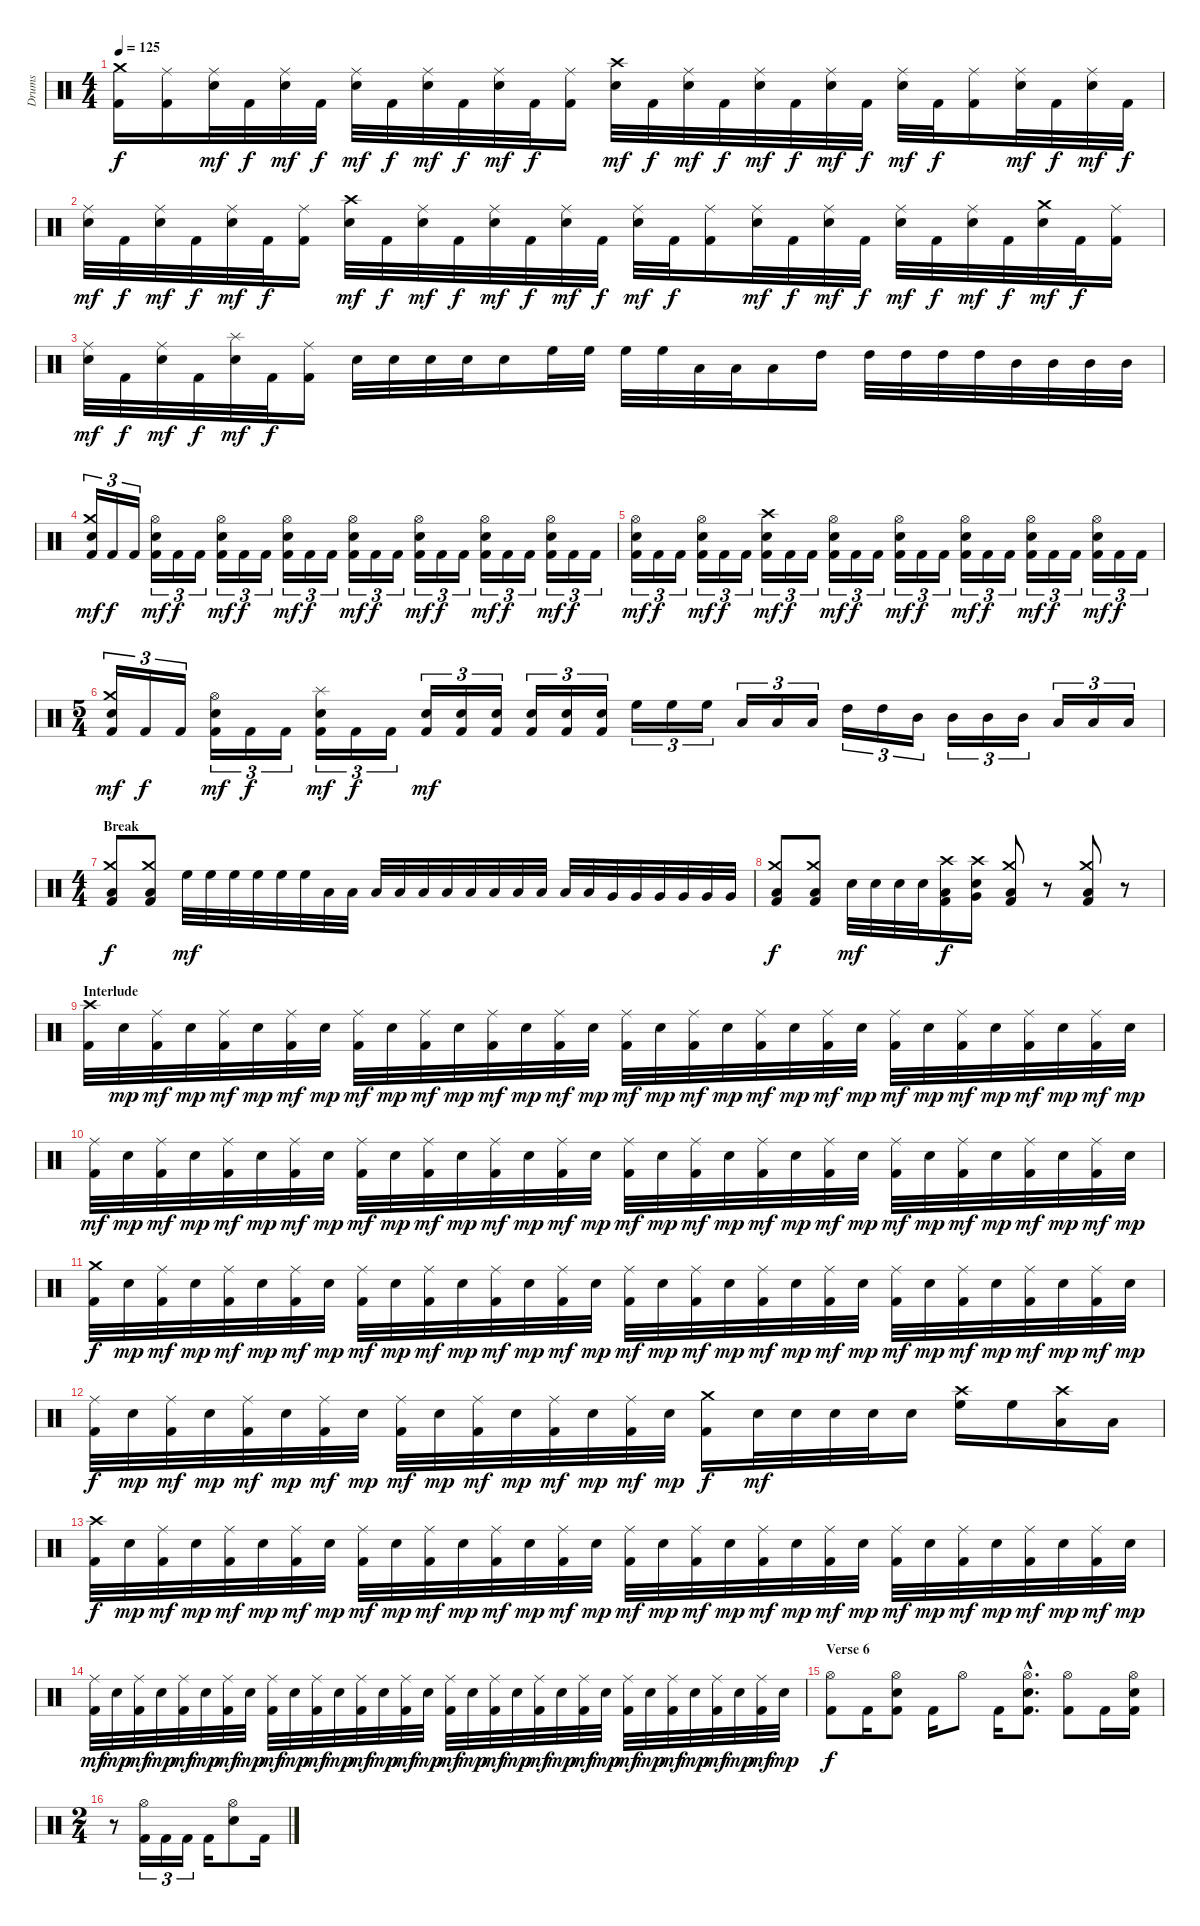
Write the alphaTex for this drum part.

\track ("Drums" "Drums") {instrument percussion}
\staff {score}
\articulation defaults
\ts (4 4)
\tempo 125
\clef neutral
\ks c
("Kick (hit) 2" "Crash medium (hit)").16{dy f} ("Kick (hit) 2" "Ride (middle)").16 ("Electric Snare (hit)" "Ride (middle)").32{dy mf} "Kick (hit) 2".32{dy f} ("Electric Snare (hit)" "Ride (middle)").32{dy mf} "Kick (hit) 2".32{dy f} ("Electric Snare (hit)" "Ride (middle)").32{dy mf} "Kick (hit) 2".32{dy f} ("Electric Snare (hit)" "Ride (middle)").32{dy mf} "Kick (hit) 2".32{dy f} ("Electric Snare (hit)" "Ride (middle)").32{dy mf} "Kick (hit) 2".32{dy f} ("Kick (hit) 2" "Ride (middle)").16 ("Electric Snare (hit)" "Crash high (hit)").32{dy mf} "Kick (hit) 2".32{dy f} ("Electric Snare (hit)" "Ride (middle)").32{dy mf} "Kick (hit) 2".32{dy f} ("Electric Snare (hit)" "Ride (middle)").32{dy mf} "Kick (hit) 2".32{dy f} ("Electric Snare (hit)" "Ride (middle)").32{dy mf} "Kick (hit) 2".32{dy f} ("Electric Snare (hit)" "Ride (middle)").32{dy mf} "Kick (hit) 2".32{dy f} ("Kick (hit) 2" "Ride (middle)").16 ("Electric Snare (hit)" "Ride (middle)").32{dy mf} "Kick (hit) 2".32{dy f} ("Electric Snare (hit)" "Ride (middle)").32{dy mf} "Kick (hit) 2".32{dy f} |
("Electric Snare (hit)" "Ride (middle)").32{dy mf} "Kick (hit) 2".32{dy f} ("Electric Snare (hit)" "Ride (middle)").32{dy mf} "Kick (hit) 2".32{dy f} ("Electric Snare (hit)" "Ride (middle)").32{dy mf} "Kick (hit) 2".32{dy f} ("Kick (hit) 2" "Ride (middle)").16 ("Electric Snare (hit)" "Crash high (hit)").32{dy mf} "Kick (hit) 2".32{dy f} ("Electric Snare (hit)" "Ride (middle)").32{dy mf} "Kick (hit) 2".32{dy f} ("Electric Snare (hit)" "Ride (middle)").32{dy mf} "Kick (hit) 2".32{dy f} ("Electric Snare (hit)" "Ride (middle)").32{dy mf} "Kick (hit) 2".32{dy f} ("Electric Snare (hit)" "Ride (middle)").32{dy mf} "Kick (hit) 2".32{dy f} ("Kick (hit) 2" "Ride (middle)").16 ("Electric Snare (hit)" "Ride (middle)").32{dy mf} "Kick (hit) 2".32{dy f} ("Electric Snare (hit)" "Ride (middle)").32{dy mf} "Kick (hit) 2".32{dy f} ("Electric Snare (hit)" "Ride (middle)").32{dy mf} "Kick (hit) 2".32{dy f} ("Electric Snare (hit)" "Ride (middle)").32{dy mf} "Kick (hit) 2".32{dy f} ("Electric Snare (hit)" "Crash medium (hit)").32{dy mf} "Kick (hit) 2".32{dy f} ("Kick (hit) 2" "Ride (middle)").16 |
("Electric Snare (hit)" "Ride (middle)").32{dy mf} "Kick (hit) 2".32{dy f} ("Electric Snare (hit)" "Ride (middle)").32{dy mf} "Kick (hit) 2".32{dy f} ("Electric Snare (hit)" "Splash (hit)").32{dy mf} "Kick (hit) 2".32{dy f} ("Kick (hit) 2" "Ride (middle)").16 "Electric Snare (hit)".32 "Electric Snare (hit)".32 "Electric Snare (hit)".32 "Electric Snare (hit)".32 "Electric Snare (hit)".16 "High Floor Tom (hit)".32 "High Floor Tom (hit)".32 "High Floor Tom (hit)".32 "High Floor Tom (hit)".32 "Low Tom (hit)".32 "Low Tom (hit)".32 "Low Tom (hit)".16 "High Tom (hit)".16 "High Tom (hit)".32 "High Tom (hit)".32 "High Tom (hit)".32 "High Tom (hit)".32 "Mid Tom (hit)".32 "Mid Tom (hit)".32 "Mid Tom (hit)".32 "Mid Tom (hit)".32 |
("Kick (hit) 2" "Electric Snare (hit)" "Crash medium (hit)").16{tu (3 2) dy mf} "Kick (hit) 2".16{tu (3 2) dy f} "Kick (hit) 2".16{tu (3 2)} ("Kick (hit) 2" "Electric Snare (hit)" "Hi-Hat (open)").16{tu (3 2) dy mf} "Kick (hit) 2".16{tu (3 2) dy f} "Kick (hit) 2".16{tu (3 2)} ("Kick (hit) 2" "Electric Snare (hit)" "Hi-Hat (open)").16{tu (3 2) dy mf} "Kick (hit) 2".16{tu (3 2) dy f} "Kick (hit) 2".16{tu (3 2)} ("Kick (hit) 2" "Electric Snare (hit)" "Hi-Hat (open)").16{tu (3 2) dy mf} "Kick (hit) 2".16{tu (3 2) dy f} "Kick (hit) 2".16{tu (3 2)} ("Kick (hit) 2" "Electric Snare (hit)" "Hi-Hat (open)").16{tu (3 2) dy mf} "Kick (hit) 2".16{tu (3 2) dy f} "Kick (hit) 2".16{tu (3 2)} ("Kick (hit) 2" "Electric Snare (hit)" "Hi-Hat (open)").16{tu (3 2) dy mf} "Kick (hit) 2".16{tu (3 2) dy f} "Kick (hit) 2".16{tu (3 2)} ("Kick (hit) 2" "Electric Snare (hit)" "Hi-Hat (open)").16{tu (3 2) dy mf} "Kick (hit) 2".16{tu (3 2) dy f} "Kick (hit) 2".16{tu (3 2)} ("Kick (hit) 2" "Electric Snare (hit)" "Hi-Hat (open)").16{tu (3 2) dy mf} "Kick (hit) 2".16{tu (3 2) dy f} "Kick (hit) 2".16{tu (3 2)} |
("Kick (hit) 2" "Electric Snare (hit)" "Hi-Hat (open)").16{tu (3 2) dy mf} "Kick (hit) 2".16{tu (3 2) dy f} "Kick (hit) 2".16{tu (3 2)} ("Kick (hit) 2" "Electric Snare (hit)" "Hi-Hat (open)").16{tu (3 2) dy mf} "Kick (hit) 2".16{tu (3 2) dy f} "Kick (hit) 2".16{tu (3 2)} ("Kick (hit) 2" "Electric Snare (hit)" "Crash high (hit)").16{tu (3 2) dy mf} "Kick (hit) 2".16{tu (3 2) dy f} "Kick (hit) 2".16{tu (3 2)} ("Kick (hit) 2" "Electric Snare (hit)" "Hi-Hat (open)").16{tu (3 2) dy mf} "Kick (hit) 2".16{tu (3 2) dy f} "Kick (hit) 2".16{tu (3 2)} ("Kick (hit) 2" "Electric Snare (hit)" "Hi-Hat (open)").16{tu (3 2) dy mf} "Kick (hit) 2".16{tu (3 2) dy f} "Kick (hit) 2".16{tu (3 2)} ("Kick (hit) 2" "Electric Snare (hit)" "Hi-Hat (open)").16{tu (3 2) dy mf} "Kick (hit) 2".16{tu (3 2) dy f} "Kick (hit) 2".16{tu (3 2)} ("Kick (hit) 2" "Electric Snare (hit)" "Hi-Hat (open)").16{tu (3 2) dy mf} "Kick (hit) 2".16{tu (3 2) dy f} "Kick (hit) 2".16{tu (3 2)} ("Kick (hit) 2" "Electric Snare (hit)" "Hi-Hat (open)").16{tu (3 2) dy mf} "Kick (hit) 2".16{tu (3 2) dy f} "Kick (hit) 2".16{tu (3 2)} |
\ts (5 4)
("Kick (hit) 2" "Electric Snare (hit)" "Crash medium (hit)").16{tu (3 2) dy mf} "Kick (hit) 2".16{tu (3 2) dy f} "Kick (hit) 2".16{tu (3 2)} ("Kick (hit) 2" "Electric Snare (hit)" "Hi-Hat (open)").16{tu (3 2) dy mf} "Kick (hit) 2".16{tu (3 2) dy f} "Kick (hit) 2".16{tu (3 2)} ("Kick (hit) 2" "Electric Snare (hit)" "Splash (hit)").16{tu (3 2) dy mf} "Kick (hit) 2".16{tu (3 2) dy f} "Kick (hit) 2".16{tu (3 2)} ("Kick (hit) 2" "Electric Snare (hit)").16{tu (3 2) dy mf} ("Kick (hit) 2" "Electric Snare (hit)").16{tu (3 2)} ("Kick (hit) 2" "Electric Snare (hit)").16{tu (3 2)} ("Kick (hit) 2" "Electric Snare (hit)").16{tu (3 2)} ("Kick (hit) 2" "Electric Snare (hit)").16{tu (3 2)} ("Kick (hit) 2" "Electric Snare (hit)").16{tu (3 2)} "High Floor Tom (hit)".16{tu (3 2)} "High Floor Tom (hit)".16{tu (3 2)} "High Floor Tom (hit)".16{tu (3 2)} "Low Tom (hit)".16{tu (3 2)} "Low Tom (hit)".16{tu (3 2)} "Low Tom (hit)".16{tu (3 2)} "High Tom (hit)".16{tu (3 2)} "High Tom (hit)".16{tu (3 2)} "Mid Tom (hit)".16{tu (3 2)} "Mid Tom (hit)".16{tu (3 2)} "Mid Tom (hit)".16{tu (3 2)} "Mid Tom (hit)".16{tu (3 2)} "Low Floor Tom (hit)".16{tu (3 2)} "Low Floor Tom (hit)".16{tu (3 2)} "Low Floor Tom (hit)".16{tu (3 2)} |
\ts (4 4)
\section ("" "Break")
("Kick (hit) 2" "Low Floor Tom (hit)" "Crash medium (hit)").8{dy f} ("Kick (hit) 2" "Low Floor Tom (hit)" "Crash medium (hit)").8 "High Floor Tom (hit)".32{dy mf} "High Floor Tom (hit)".32 "High Floor Tom (hit)".32 "High Floor Tom (hit)".32 "High Floor Tom (hit)".32 "High Floor Tom (hit)".32 "Low Tom (hit)".32 "Low Tom (hit)".32 "Low Tom (hit)".32 "Low Tom (hit)".32 "Low Tom (hit)".32 "Low Tom (hit)".32 "Low Floor Tom (hit)".32 "Low Floor Tom (hit)".32 "Low Floor Tom (hit)".32 "Low Floor Tom (hit)".32 "Low Floor Tom (hit)".32 "Low Floor Tom (hit)".32 "Very Low Tom (hit)".32 "Very Low Tom (hit)".32 "Very Low Tom (hit)".32 "Very Low Tom (hit)".32 "Very Low Tom (hit)".32 "Very Low Tom (hit)".32 |
("Kick (hit) 2" "Low Floor Tom (hit)" "Crash medium (hit)").8{dy f} ("Kick (hit) 2" "Low Floor Tom (hit)" "Crash medium (hit)").8 "Electric Snare (hit)".32{dy mf} "Electric Snare (hit)".32 "Electric Snare (hit)".32 "Electric Snare (hit)".32 ("Kick (hit) 2" "Low Floor Tom (hit)" "Crash high (hit)").16{dy f} ("Snare (hit)" "Very Low Tom (hit)" "Crash high (hit)").16 ("Kick (hit) 2" "Low Floor Tom (hit)" "Crash medium (hit)").8 r.8 ("Kick (hit) 2" "Low Floor Tom (hit)" "Crash medium (hit)").8 r.8 |
\section ("" "Interlude")
("Kick (hit) 2" "Crash high (hit)").32 "Electric Snare (hit)".32{dy mp} ("Kick (hit) 2" "Ride (middle)").32{dy mf} "Electric Snare (hit)".32{dy mp} ("Kick (hit) 2" "Ride (middle)").32{dy mf} "Electric Snare (hit)".32{dy mp} ("Kick (hit) 2" "Ride (middle)").32{dy mf} "Electric Snare (hit)".32{dy mp} ("Kick (hit) 2" "Ride (middle)").32{dy mf} "Electric Snare (hit)".32{dy mp} ("Kick (hit) 2" "Ride (middle)").32{dy mf} "Electric Snare (hit)".32{dy mp} ("Kick (hit) 2" "Ride (middle)").32{dy mf} "Electric Snare (hit)".32{dy mp} ("Kick (hit) 2" "Ride (middle)").32{dy mf} "Electric Snare (hit)".32{dy mp} ("Kick (hit) 2" "Ride (middle)").32{dy mf} "Electric Snare (hit)".32{dy mp} ("Kick (hit) 2" "Ride (middle)").32{dy mf} "Electric Snare (hit)".32{dy mp} ("Kick (hit) 2" "Ride (middle)").32{dy mf} "Electric Snare (hit)".32{dy mp} ("Kick (hit) 2" "Ride (middle)").32{dy mf} "Electric Snare (hit)".32{dy mp} ("Kick (hit) 2" "Ride (middle)").32{dy mf} "Electric Snare (hit)".32{dy mp} ("Kick (hit) 2" "Ride (middle)").32{dy mf} "Electric Snare (hit)".32{dy mp} ("Kick (hit) 2" "Ride (middle)").32{dy mf} "Electric Snare (hit)".32{dy mp} ("Kick (hit) 2" "Ride (middle)").32{dy mf} "Electric Snare (hit)".32{dy mp} |
("Kick (hit) 2" "Ride (middle)").32{dy mf} "Electric Snare (hit)".32{dy mp} ("Kick (hit) 2" "Ride (middle)").32{dy mf} "Electric Snare (hit)".32{dy mp} ("Kick (hit) 2" "Ride (middle)").32{dy mf} "Electric Snare (hit)".32{dy mp} ("Kick (hit) 2" "Ride (middle)").32{dy mf} "Electric Snare (hit)".32{dy mp} ("Kick (hit) 2" "Ride (middle)").32{dy mf} "Electric Snare (hit)".32{dy mp} ("Kick (hit) 2" "Ride (middle)").32{dy mf} "Electric Snare (hit)".32{dy mp} ("Kick (hit) 2" "Ride (middle)").32{dy mf} "Electric Snare (hit)".32{dy mp} ("Kick (hit) 2" "Ride (middle)").32{dy mf} "Electric Snare (hit)".32{dy mp} ("Kick (hit) 2" "Ride (middle)").32{dy mf} "Electric Snare (hit)".32{dy mp} ("Kick (hit) 2" "Ride (middle)").32{dy mf} "Electric Snare (hit)".32{dy mp} ("Kick (hit) 2" "Ride (middle)").32{dy mf} "Electric Snare (hit)".32{dy mp} ("Kick (hit) 2" "Ride (middle)").32{dy mf} "Electric Snare (hit)".32{dy mp} ("Kick (hit) 2" "Ride (middle)").32{dy mf} "Electric Snare (hit)".32{dy mp} ("Kick (hit) 2" "Ride (middle)").32{dy mf} "Electric Snare (hit)".32{dy mp} ("Kick (hit) 2" "Ride (middle)").32{dy mf} "Electric Snare (hit)".32{dy mp} ("Kick (hit) 2" "Ride (middle)").32{dy mf} "Electric Snare (hit)".32{dy mp} |
("Kick (hit) 2" "Crash medium (hit)").32{dy f} "Electric Snare (hit)".32{dy mp} ("Kick (hit) 2" "Ride (middle)").32{dy mf} "Electric Snare (hit)".32{dy mp} ("Kick (hit) 2" "Ride (middle)").32{dy mf} "Electric Snare (hit)".32{dy mp} ("Kick (hit) 2" "Ride (middle)").32{dy mf} "Electric Snare (hit)".32{dy mp} ("Kick (hit) 2" "Ride (middle)").32{dy mf} "Electric Snare (hit)".32{dy mp} ("Kick (hit) 2" "Ride (middle)").32{dy mf} "Electric Snare (hit)".32{dy mp} ("Kick (hit) 2" "Ride (middle)").32{dy mf} "Electric Snare (hit)".32{dy mp} ("Kick (hit) 2" "Ride (middle)").32{dy mf} "Electric Snare (hit)".32{dy mp} ("Kick (hit) 2" "Ride (middle)").32{dy mf} "Electric Snare (hit)".32{dy mp} ("Kick (hit) 2" "Ride (middle)").32{dy mf} "Electric Snare (hit)".32{dy mp} ("Kick (hit) 2" "Ride (middle)").32{dy mf} "Electric Snare (hit)".32{dy mp} ("Kick (hit) 2" "Ride (middle)").32{dy mf} "Electric Snare (hit)".32{dy mp} ("Kick (hit) 2" "Ride (middle)").32{dy mf} "Electric Snare (hit)".32{dy mp} ("Kick (hit) 2" "Ride (middle)").32{dy mf} "Electric Snare (hit)".32{dy mp} ("Kick (hit) 2" "Ride (middle)").32{dy mf} "Electric Snare (hit)".32{dy mp} ("Kick (hit) 2" "Ride (middle)").32{dy mf} "Electric Snare (hit)".32{dy mp} |
("Kick (hit) 2" "Ride (middle)").32{dy f} "Electric Snare (hit)".32{dy mp} ("Kick (hit) 2" "Ride (middle)").32{dy mf} "Electric Snare (hit)".32{dy mp} ("Kick (hit) 2" "Ride (middle)").32{dy mf} "Electric Snare (hit)".32{dy mp} ("Kick (hit) 2" "Ride (middle)").32{dy mf} "Electric Snare (hit)".32{dy mp} ("Kick (hit) 2" "Ride (middle)").32{dy mf} "Electric Snare (hit)".32{dy mp} ("Kick (hit) 2" "Ride (middle)").32{dy mf} "Electric Snare (hit)".32{dy mp} ("Kick (hit) 2" "Ride (middle)").32{dy mf} "Electric Snare (hit)".32{dy mp} ("Kick (hit) 2" "Ride (middle)").32{dy mf} "Electric Snare (hit)".32{dy mp} ("Kick (hit) 2" "Crash medium (hit)").16{dy f} "Electric Snare (hit)".32{dy mf} "Electric Snare (hit)".32 "Electric Snare (hit)".32 "Electric Snare (hit)".32 "Electric Snare (hit)".16 ("High Floor Tom (hit)" "Crash high (hit)").16 "High Floor Tom (hit)".16 ("Low Tom (hit)" "Crash high (hit)").16 "Low Tom (hit)".16 |
("Kick (hit) 2" "Crash high (hit)").32{dy f} "Electric Snare (hit)".32{dy mp} ("Kick (hit) 2" "Ride (middle)").32{dy mf} "Electric Snare (hit)".32{dy mp} ("Kick (hit) 2" "Ride (middle)").32{dy mf} "Electric Snare (hit)".32{dy mp} ("Kick (hit) 2" "Ride (middle)").32{dy mf} "Electric Snare (hit)".32{dy mp} ("Kick (hit) 2" "Ride (middle)").32{dy mf} "Electric Snare (hit)".32{dy mp} ("Kick (hit) 2" "Ride (middle)").32{dy mf} "Electric Snare (hit)".32{dy mp} ("Kick (hit) 2" "Ride (middle)").32{dy mf} "Electric Snare (hit)".32{dy mp} ("Kick (hit) 2" "Ride (middle)").32{dy mf} "Electric Snare (hit)".32{dy mp} ("Kick (hit) 2" "Ride (middle)").32{dy mf} "Electric Snare (hit)".32{dy mp} ("Kick (hit) 2" "Ride (middle)").32{dy mf} "Electric Snare (hit)".32{dy mp} ("Kick (hit) 2" "Ride (middle)").32{dy mf} "Electric Snare (hit)".32{dy mp} ("Kick (hit) 2" "Ride (middle)").32{dy mf} "Electric Snare (hit)".32{dy mp} ("Kick (hit) 2" "Ride (middle)").32{dy mf} "Electric Snare (hit)".32{dy mp} ("Kick (hit) 2" "Ride (middle)").32{dy mf} "Electric Snare (hit)".32{dy mp} ("Kick (hit) 2" "Ride (middle)").32{dy mf} "Electric Snare (hit)".32{dy mp} ("Kick (hit) 2" "Ride (middle)").32{dy mf} "Electric Snare (hit)".32{dy mp} |
("Kick (hit) 2" "Ride (middle)").32{dy mf} "Electric Snare (hit)".32{dy mp} ("Kick (hit) 2" "Ride (middle)").32{dy mf} "Electric Snare (hit)".32{dy mp} ("Kick (hit) 2" "Ride (middle)").32{dy mf} "Electric Snare (hit)".32{dy mp} ("Kick (hit) 2" "Ride (middle)").32{dy mf} "Electric Snare (hit)".32{dy mp} ("Kick (hit) 2" "Ride (middle)").32{dy mf} "Electric Snare (hit)".32{dy mp} ("Kick (hit) 2" "Ride (middle)").32{dy mf} "Electric Snare (hit)".32{dy mp} ("Kick (hit) 2" "Ride (middle)").32{dy mf} "Electric Snare (hit)".32{dy mp} ("Kick (hit) 2" "Ride (middle)").32{dy mf} "Electric Snare (hit)".32{dy mp} ("Kick (hit) 2" "Ride (middle)").32{dy mf} "Electric Snare (hit)".32{dy mp} ("Kick (hit) 2" "Ride (middle)").32{dy mf} "Electric Snare (hit)".32{dy mp} ("Kick (hit) 2" "Ride (middle)").32{dy mf} "Electric Snare (hit)".32{dy mp} ("Kick (hit) 2" "Ride (middle)").32{dy mf} "Electric Snare (hit)".32{dy mp} ("Kick (hit) 2" "Ride (middle)").32{dy mf} "Electric Snare (hit)".32{dy mp} ("Kick (hit) 2" "Ride (middle)").32{dy mf} "Electric Snare (hit)".32{dy mp} ("Kick (hit) 2" "Ride (middle)").32{dy mf} "Electric Snare (hit)".32{dy mp} ("Kick (hit) 2" "Ride (middle)").32{dy mf} "Electric Snare (hit)".32{dy mp} |
\section ("" "Verse 6")
("Kick (hit) 2" "Hi-Hat (open)").8{dy f} "Kick (hit) 2".16 ("Kick (hit) 2" "Electric Snare (hit)" "Hi-Hat (open)").8 "Kick (hit) 2".16 "Hi-Hat (open)".8 "Kick (hit) 2".16 ("Kick (hit) 2"{hac} "Electric Snare (hit)"{hac} "Hi-Hat (open)"{hac}).8{d} ("Kick (hit) 2" "Hi-Hat (open)").8 "Kick (hit) 2".16 ("Kick (hit) 2" "Electric Snare (hit)" "Hi-Hat (open)").16 |
\ts (2 4)
r.8 ("Kick (hit) 2" "Hi-Hat (open)").16{tu (3 2)} "Kick (hit) 2".16{tu (3 2)} "Kick (hit) 2".16{tu (3 2)} "Kick (hit) 2".16 ("Electric Snare (hit)" "Hi-Hat (open)").8 "Kick (hit) 2".16
